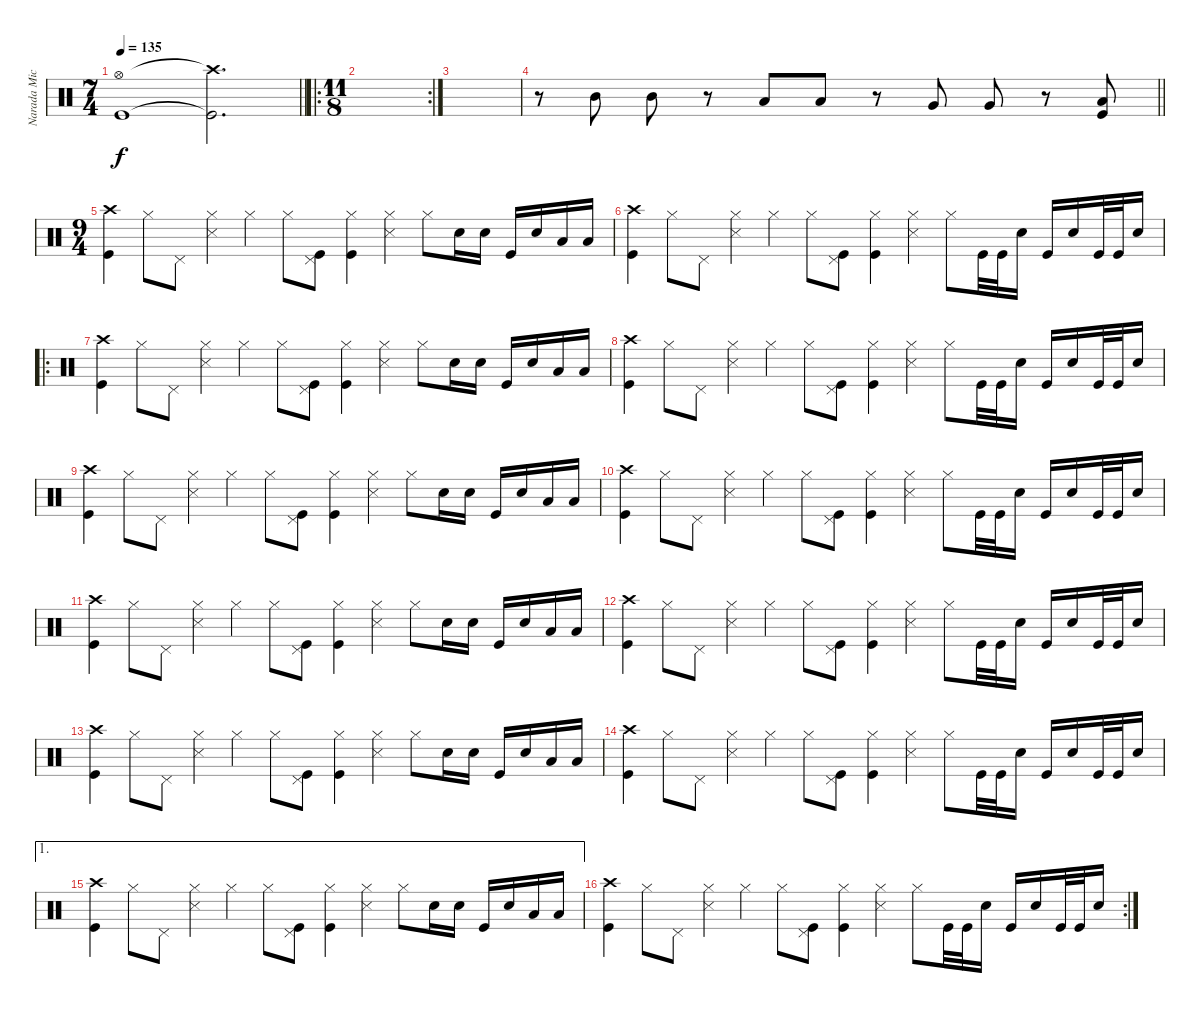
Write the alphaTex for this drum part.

\track ("Narada Michael Walden" "Narada Mic") {instrument percussion}
\staff {score}
\articulation defaults
\ts (7 4)
\tempo 135
\clef neutral
\barLineRight lightlight
\ks c
("Kick (hit)"{t} "Hi-Hat (open)"{t}).1{dy f} ("Kick (hit)"{t} "Crash high (hit)"{t}).2{d} |
\ro
\rc 2
\ts (11 8)
|
|
\barLineRight lightlight
r.8 "Mid Tom (hit)".8 "Mid Tom (hit)".8 r.8 "Low Tom (hit)".8 "Low Tom (hit)".8 r.8 "Very Low Tom (hit)".8 "Very Low Tom (hit)".8 r.8 ("Low Floor Tom (hit)" "Kick (hit)").8 |
\ts (9 4)
("Kick (hit)" "Crash high (hit)").4 "Hi-Hat (closed)".8 "Pedal Hi-Hat (hit)".8 ("Hi-Hat (closed)" "Snare (side stick) 3").4 "Hi-Hat (closed)".4 "Hi-Hat (closed)".8 ("Pedal Hi-Hat (hit)" "Kick (hit)").8 ("Hi-Hat (closed)" "Kick (hit)").4 ("Hi-Hat (closed)" "Snare (side stick) 3").4 "Hi-Hat (closed)".8 "Snare (hit) 2".16 "Snare (hit) 2".16 "Kick (hit)".16 "Snare (hit) 2".16 "Low Tom (hit)".16 "Low Tom (hit)".16 |
("Kick (hit)" "Crash high (hit)").4 "Hi-Hat (closed)".8 "Pedal Hi-Hat (hit)".8 ("Hi-Hat (closed)" "Snare (side stick) 3").4 "Hi-Hat (closed)".4 "Hi-Hat (closed)".8 ("Pedal Hi-Hat (hit)" "Kick (hit)").8 ("Hi-Hat (closed)" "Kick (hit)").4 ("Hi-Hat (closed)" "Snare (side stick) 3").4 "Hi-Hat (closed)".8 "Kick (hit)".32 "Kick (hit)".32 "Snare (hit) 2".16 "Kick (hit)".16 "Snare (hit) 2".16 "Kick (hit)".32 "Kick (hit)".32 "Snare (hit) 2".16 |
\ro
("Kick (hit)" "Crash high (hit)").4 "Hi-Hat (closed)".8 "Pedal Hi-Hat (hit)".8 ("Hi-Hat (closed)" "Snare (side stick) 3").4 "Hi-Hat (closed)".4 "Hi-Hat (closed)".8 ("Pedal Hi-Hat (hit)" "Kick (hit)").8 ("Hi-Hat (closed)" "Kick (hit)").4 ("Hi-Hat (closed)" "Snare (side stick) 3").4 "Hi-Hat (closed)".8 "Snare (hit) 2".16 "Snare (hit) 2".16 "Kick (hit)".16 "Snare (hit) 2".16 "Low Tom (hit)".16 "Low Tom (hit)".16 |
("Kick (hit)" "Crash high (hit)").4 "Hi-Hat (closed)".8 "Pedal Hi-Hat (hit)".8 ("Hi-Hat (closed)" "Snare (side stick) 3").4 "Hi-Hat (closed)".4 "Hi-Hat (closed)".8 ("Pedal Hi-Hat (hit)" "Kick (hit)").8 ("Hi-Hat (closed)" "Kick (hit)").4 ("Hi-Hat (closed)" "Snare (side stick) 3").4 "Hi-Hat (closed)".8 "Kick (hit)".32 "Kick (hit)".32 "Snare (hit) 2".16 "Kick (hit)".16 "Snare (hit) 2".16 "Kick (hit)".32 "Kick (hit)".32 "Snare (hit) 2".16 |
("Kick (hit)" "Crash high (hit)").4 "Hi-Hat (closed)".8 "Pedal Hi-Hat (hit)".8 ("Hi-Hat (closed)" "Snare (side stick) 3").4 "Hi-Hat (closed)".4 "Hi-Hat (closed)".8 ("Pedal Hi-Hat (hit)" "Kick (hit)").8 ("Hi-Hat (closed)" "Kick (hit)").4 ("Hi-Hat (closed)" "Snare (side stick) 3").4 "Hi-Hat (closed)".8 "Snare (hit) 2".16 "Snare (hit) 2".16 "Kick (hit)".16 "Snare (hit) 2".16 "Low Tom (hit)".16 "Low Tom (hit)".16 |
("Kick (hit)" "Crash high (hit)").4 "Hi-Hat (closed)".8 "Pedal Hi-Hat (hit)".8 ("Hi-Hat (closed)" "Snare (side stick) 3").4 "Hi-Hat (closed)".4 "Hi-Hat (closed)".8 ("Pedal Hi-Hat (hit)" "Kick (hit)").8 ("Hi-Hat (closed)" "Kick (hit)").4 ("Hi-Hat (closed)" "Snare (side stick) 3").4 "Hi-Hat (closed)".8 "Kick (hit)".32 "Kick (hit)".32 "Snare (hit) 2".16 "Kick (hit)".16 "Snare (hit) 2".16 "Kick (hit)".32 "Kick (hit)".32 "Snare (hit) 2".16 |
("Kick (hit)" "Crash high (hit)").4 "Hi-Hat (closed)".8 "Pedal Hi-Hat (hit)".8 ("Hi-Hat (closed)" "Snare (side stick) 3").4 "Hi-Hat (closed)".4 "Hi-Hat (closed)".8 ("Pedal Hi-Hat (hit)" "Kick (hit)").8 ("Hi-Hat (closed)" "Kick (hit)").4 ("Hi-Hat (closed)" "Snare (side stick) 3").4 "Hi-Hat (closed)".8 "Snare (hit) 2".16 "Snare (hit) 2".16 "Kick (hit)".16 "Snare (hit) 2".16 "Low Tom (hit)".16 "Low Tom (hit)".16 |
("Kick (hit)" "Crash high (hit)").4 "Hi-Hat (closed)".8 "Pedal Hi-Hat (hit)".8 ("Hi-Hat (closed)" "Snare (side stick) 3").4 "Hi-Hat (closed)".4 "Hi-Hat (closed)".8 ("Pedal Hi-Hat (hit)" "Kick (hit)").8 ("Hi-Hat (closed)" "Kick (hit)").4 ("Hi-Hat (closed)" "Snare (side stick) 3").4 "Hi-Hat (closed)".8 "Kick (hit)".32 "Kick (hit)".32 "Snare (hit) 2".16 "Kick (hit)".16 "Snare (hit) 2".16 "Kick (hit)".32 "Kick (hit)".32 "Snare (hit) 2".16 |
("Kick (hit)" "Crash high (hit)").4 "Hi-Hat (closed)".8 "Pedal Hi-Hat (hit)".8 ("Hi-Hat (closed)" "Snare (side stick) 3").4 "Hi-Hat (closed)".4 "Hi-Hat (closed)".8 ("Pedal Hi-Hat (hit)" "Kick (hit)").8 ("Hi-Hat (closed)" "Kick (hit)").4 ("Hi-Hat (closed)" "Snare (side stick) 3").4 "Hi-Hat (closed)".8 "Snare (hit) 2".16 "Snare (hit) 2".16 "Kick (hit)".16 "Snare (hit) 2".16 "Low Tom (hit)".16 "Low Tom (hit)".16 |
("Kick (hit)" "Crash high (hit)").4 "Hi-Hat (closed)".8 "Pedal Hi-Hat (hit)".8 ("Hi-Hat (closed)" "Snare (side stick) 3").4 "Hi-Hat (closed)".4 "Hi-Hat (closed)".8 ("Pedal Hi-Hat (hit)" "Kick (hit)").8 ("Hi-Hat (closed)" "Kick (hit)").4 ("Hi-Hat (closed)" "Snare (side stick) 3").4 "Hi-Hat (closed)".8 "Kick (hit)".32 "Kick (hit)".32 "Snare (hit) 2".16 "Kick (hit)".16 "Snare (hit) 2".16 "Kick (hit)".32 "Kick (hit)".32 "Snare (hit) 2".16 |
\ae 1
("Kick (hit)" "Crash high (hit)").4 "Hi-Hat (closed)".8 "Pedal Hi-Hat (hit)".8 ("Hi-Hat (closed)" "Snare (side stick) 3").4 "Hi-Hat (closed)".4 "Hi-Hat (closed)".8 ("Pedal Hi-Hat (hit)" "Kick (hit)").8 ("Hi-Hat (closed)" "Kick (hit)").4 ("Hi-Hat (closed)" "Snare (side stick) 3").4 "Hi-Hat (closed)".8 "Snare (hit) 2".16 "Snare (hit) 2".16 "Kick (hit)".16 "Snare (hit) 2".16 "Low Tom (hit)".16 "Low Tom (hit)".16 |
\rc 2
("Kick (hit)" "Crash high (hit)").4 "Hi-Hat (closed)".8 "Pedal Hi-Hat (hit)".8 ("Hi-Hat (closed)" "Snare (side stick) 3").4 "Hi-Hat (closed)".4 "Hi-Hat (closed)".8 ("Pedal Hi-Hat (hit)" "Kick (hit)").8 ("Hi-Hat (closed)" "Kick (hit)").4 ("Hi-Hat (closed)" "Snare (side stick) 3").4 "Hi-Hat (closed)".8 "Kick (hit)".32 "Kick (hit)".32 "Snare (hit) 2".16 "Kick (hit)".16 "Snare (hit) 2".16 "Kick (hit)".32 "Kick (hit)".32 "Snare (hit) 2".16
